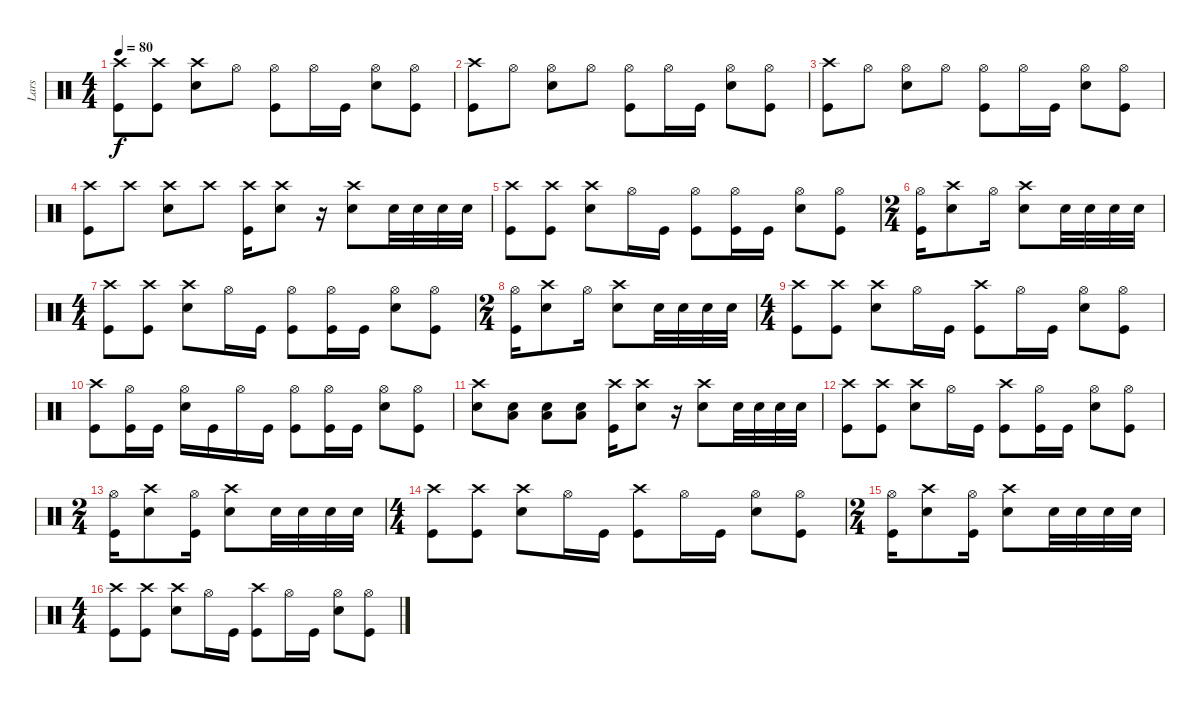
\track ("Lars" "Lars") {instrument percussion}
\staff {score}
\articulation defaults
\ts (4 4)
\tempo 80
\clef neutral
\ks c
("Crash high (hit)" "Kick (hit)").8{dy f} ("Crash high (hit)" "Kick (hit)").8 ("Crash high (hit)" "Snare (hit) 2").8 "Hi-Hat (open)".8 ("Hi-Hat (open)" "Kick (hit)").8 "Hi-Hat (open)".16 "Kick (hit)".16 ("Hi-Hat (open)" "Snare (hit) 2").8 ("Hi-Hat (open)" "Kick (hit)").8 |
("Crash high (hit)" "Kick (hit)").8 "Hi-Hat (open)".8 ("Hi-Hat (open)" "Snare (hit) 2").8 "Hi-Hat (open)".8 ("Hi-Hat (open)" "Kick (hit)").8 "Hi-Hat (open)".16 "Kick (hit)".16 ("Hi-Hat (open)" "Snare (hit) 2").8 ("Hi-Hat (open)" "Kick (hit)").8 |
("Crash high (hit)" "Kick (hit)").8 "Hi-Hat (open)".8 ("Hi-Hat (open)" "Snare (hit) 2").8 "Hi-Hat (open)".8 ("Hi-Hat (open)" "Kick (hit)").8 "Hi-Hat (open)".16 "Kick (hit)".16 ("Hi-Hat (open)" "Snare (hit) 2").8 ("Hi-Hat (open)" "Kick (hit)").8 |
("Crash high (hit)" "Kick (hit)").8 "Crash high (hit)".8 ("Crash high (hit)" "Snare (hit) 2").8 "Crash high (hit)".8 ("Crash high (hit)" "Kick (hit)").16 ("Crash high (hit)" "Snare (hit) 2").8 r.16 ("Crash high (hit)" "Snare (hit) 2").8 "Snare (hit) 2".32 "Snare (hit) 2".32 "Snare (hit) 2".32 "Snare (hit) 2".32 |
("Crash high (hit)" "Kick (hit)").8 ("Crash high (hit)" "Kick (hit)").8 ("Crash high (hit)" "Snare (hit) 2").8 "Hi-Hat (open)".16 "Kick (hit)".16 ("Hi-Hat (open)" "Kick (hit)").8 ("Hi-Hat (open)" "Kick (hit)").16 "Kick (hit)".16 ("Hi-Hat (open)" "Snare (hit) 2").8 ("Hi-Hat (open)" "Kick (hit)").8 |
\ts (2 4)
("Hi-Hat (open)" "Kick (hit)").16 ("Crash high (hit)" "Snare (hit) 2").8 "Hi-Hat (open)".16 ("Crash high (hit)" "Snare (hit) 2").8 "Snare (hit) 2".32 "Snare (hit) 2".32 "Snare (hit) 2".32 "Snare (hit) 2".32 |
\ts (4 4)
("Crash high (hit)" "Kick (hit)").8 ("Crash high (hit)" "Kick (hit)").8 ("Crash high (hit)" "Snare (hit) 2").8 "Hi-Hat (open)".16 "Kick (hit)".16 ("Hi-Hat (open)" "Kick (hit)").8 ("Hi-Hat (open)" "Kick (hit)").16 "Kick (hit)".16 ("Hi-Hat (open)" "Snare (hit) 2").8 ("Hi-Hat (open)" "Kick (hit)").8 |
\ts (2 4)
("Hi-Hat (open)" "Kick (hit)").16 ("Crash high (hit)" "Snare (hit) 2").8 "Hi-Hat (open)".16 ("Crash high (hit)" "Snare (hit) 2").8 "Snare (hit) 2".32 "Snare (hit) 2".32 "Snare (hit) 2".32 "Snare (hit) 2".32 |
\ts (4 4)
("Crash high (hit)" "Kick (hit)").8 ("Crash high (hit)" "Kick (hit)").8 ("Crash high (hit)" "Snare (hit) 2").8 "Hi-Hat (open)".16 "Kick (hit)".16 ("Crash high (hit)" "Kick (hit)").8 "Hi-Hat (open)".16 "Kick (hit)".16 ("Hi-Hat (open)" "Snare (hit) 2").8 ("Hi-Hat (open)" "Kick (hit)").8 |
("Crash high (hit)" "Kick (hit)").8 ("Hi-Hat (open)" "Kick (hit)").16 "Kick (hit)".16 ("Hi-Hat (open)" "Snare (hit) 2").16 "Kick (hit)".16 "Hi-Hat (open)".16 "Kick (hit)".16 ("Hi-Hat (open)" "Kick (hit)").8 ("Hi-Hat (open)" "Kick (hit)").16 "Kick (hit)".16 ("Hi-Hat (open)" "Snare (hit) 2").8 ("Hi-Hat (open)" "Kick (hit)").8 |
("Crash high (hit)" "Snare (hit) 2").8 ("Snare (hit) 2" "Low Floor Tom (hit)").8 ("Snare (hit) 2" "Low Floor Tom (hit)").8 ("Snare (hit) 2" "Low Floor Tom (hit)").8 ("Crash high (hit)" "Kick (hit)").16 ("Crash high (hit)" "Snare (hit) 2").8 r.16 ("Crash high (hit)" "Snare (hit) 2").8 "Snare (hit) 2".32 "Snare (hit) 2".32 "Snare (hit) 2".32 "Snare (hit) 2".32 |
("Crash high (hit)" "Kick (hit)").8 ("Crash high (hit)" "Kick (hit)").8 ("Crash high (hit)" "Snare (hit) 2").8 "Hi-Hat (open)".16 "Kick (hit)".16 ("Crash high (hit)" "Kick (hit)").8 ("Hi-Hat (open)" "Kick (hit)").16 "Kick (hit)".16 ("Hi-Hat (open)" "Snare (hit) 2").8 ("Hi-Hat (open)" "Kick (hit)").8 |
\ts (2 4)
("Hi-Hat (open)" "Kick (hit)").16 ("Crash high (hit)" "Snare (hit) 2").8 ("Hi-Hat (open)" "Kick (hit)").16 ("Crash high (hit)" "Snare (hit) 2").8 "Snare (hit) 2".32 "Snare (hit) 2".32 "Snare (hit) 2".32 "Snare (hit) 2".32 |
\ts (4 4)
("Crash high (hit)" "Kick (hit)").8 ("Crash high (hit)" "Kick (hit)").8 ("Crash high (hit)" "Snare (hit) 2").8 "Hi-Hat (open)".16 "Kick (hit)".16 ("Crash high (hit)" "Kick (hit)").8 "Hi-Hat (open)".16 "Kick (hit)".16 ("Hi-Hat (open)" "Snare (hit) 2").8 ("Hi-Hat (open)" "Kick (hit)").8 |
\ts (2 4)
("Hi-Hat (open)" "Kick (hit)").16 ("Crash high (hit)" "Snare (hit) 2").8 ("Hi-Hat (open)" "Kick (hit)").16 ("Crash high (hit)" "Snare (hit) 2").8 "Snare (hit) 2".32 "Snare (hit) 2".32 "Snare (hit) 2".32 "Snare (hit) 2".32 |
\ts (4 4)
("Crash high (hit)" "Kick (hit)").8 ("Crash high (hit)" "Kick (hit)").8 ("Crash high (hit)" "Snare (hit) 2").8 "Hi-Hat (open)".16 "Kick (hit)".16 ("Crash high (hit)" "Kick (hit)").8 "Hi-Hat (open)".16 "Kick (hit)".16 ("Hi-Hat (open)" "Snare (hit) 2").8 ("Hi-Hat (open)" "Kick (hit)").8
